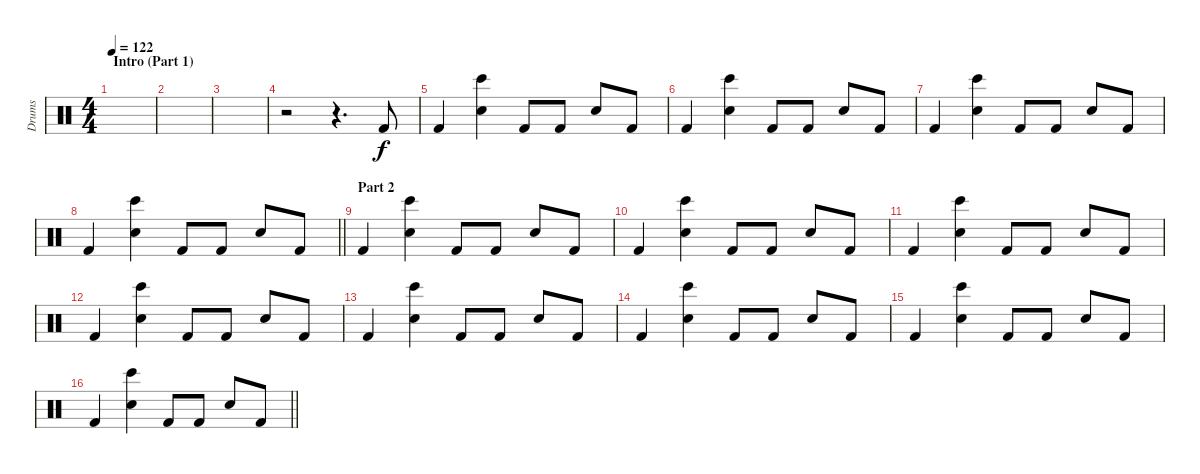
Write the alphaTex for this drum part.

\track ("Drums" "Drums") {instrument percussion}
\staff {score}
\articulation defaults
\ts (4 4)
\section ("" "Intro (Part 1)")
\tempo 122
\clef neutral
\ks c
|
|
|
r.2 r.4{d} "Kick (hit) 2".8 |
"Kick (hit) 2".4 ("Bongo High (hit)" "Hand Clap (hit)").4 "Kick (hit) 2".8 "Kick (hit) 2".8 "Snare (hit) 2".8 "Kick (hit) 2".8 |
"Kick (hit) 2".4 ("Bongo High (hit)" "Hand Clap (hit)").4 "Kick (hit) 2".8 "Kick (hit) 2".8 "Snare (hit) 2".8 "Kick (hit) 2".8 |
"Kick (hit) 2".4 ("Bongo High (hit)" "Hand Clap (hit)").4 "Kick (hit) 2".8 "Kick (hit) 2".8 "Snare (hit) 2".8 "Kick (hit) 2".8 |
\barLineRight lightlight "Kick (hit) 2".4
("Bongo High (hit)" "Hand Clap (hit)").4 "Kick (hit) 2".8 "Kick (hit) 2".8 "Snare (hit) 2".8 "Kick (hit) 2".8 |
\section ("" "Part 2")
"Kick (hit) 2".4 ("Bongo High (hit)" "Hand Clap (hit)").4 "Kick (hit) 2".8 "Kick (hit) 2".8 "Snare (hit) 2".8 "Kick (hit) 2".8 |
"Kick (hit) 2".4 ("Bongo High (hit)" "Hand Clap (hit)").4 "Kick (hit) 2".8 "Kick (hit) 2".8 "Snare (hit) 2".8 "Kick (hit) 2".8 |
"Kick (hit) 2".4 ("Bongo High (hit)" "Hand Clap (hit)").4 "Kick (hit) 2".8 "Kick (hit) 2".8 "Snare (hit) 2".8 "Kick (hit) 2".8 |
"Kick (hit) 2".4 ("Bongo High (hit)" "Hand Clap (hit)").4 "Kick (hit) 2".8 "Kick (hit) 2".8 "Snare (hit) 2".8 "Kick (hit) 2".8 |
"Kick (hit) 2".4 ("Bongo High (hit)" "Hand Clap (hit)").4 "Kick (hit) 2".8 "Kick (hit) 2".8 "Snare (hit) 2".8 "Kick (hit) 2".8 |
"Kick (hit) 2".4 ("Bongo High (hit)" "Hand Clap (hit)").4 "Kick (hit) 2".8 "Kick (hit) 2".8 "Snare (hit) 2".8 "Kick (hit) 2".8 |
"Kick (hit) 2".4 ("Bongo High (hit)" "Hand Clap (hit)").4 "Kick (hit) 2".8 "Kick (hit) 2".8 "Snare (hit) 2".8 "Kick (hit) 2".8 |
\barLineRight lightlight "Kick (hit) 2".4
("Bongo High (hit)" "Hand Clap (hit)").4 "Kick (hit) 2".8 "Kick (hit) 2".8 "Snare (hit) 2".8 "Kick (hit) 2".8
